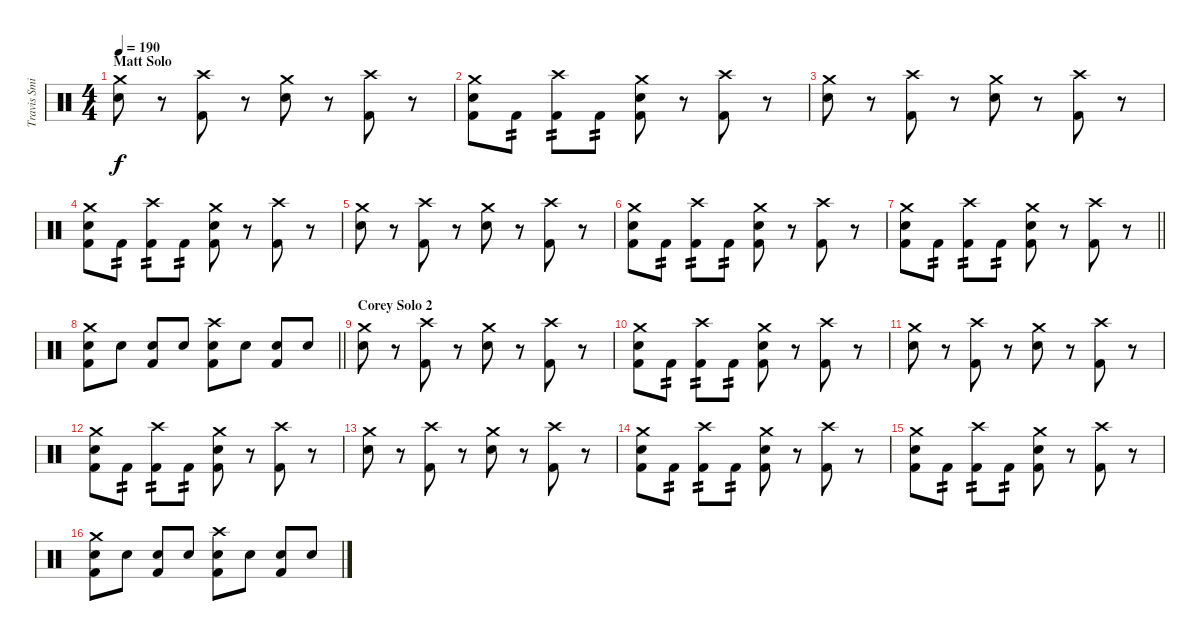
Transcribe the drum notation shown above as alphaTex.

\track ("Travis Smith" "Travis Smi") {instrument percussion}
\staff {score}
\articulation defaults
\ts (4 4)
\section ("" "Matt Solo")
\tempo 190
\clef neutral
\ks c
("Crash medium (hit)" "Electric Snare (hit)").8{dy f} r.8 ("Crash high (hit)" "Kick (hit) 2").8 r.8 ("Crash medium (hit)" "Electric Snare (hit)").8 r.8 ("Crash high (hit)" "Kick (hit) 2").8 r.8 |
("Crash medium (hit)" "Electric Snare (hit)" "Kick (hit) 2").8 "Kick (hit) 2".8{tp 2} ("Crash high (hit)" "Kick (hit) 2").8{tp 2} "Kick (hit) 2".8{tp 2} ("Crash medium (hit)" "Electric Snare (hit)" "Kick (hit) 2").8 r.8 ("Crash high (hit)" "Kick (hit) 2").8 r.8 |
("Crash medium (hit)" "Electric Snare (hit)").8 r.8 ("Crash high (hit)" "Kick (hit) 2").8 r.8 ("Crash medium (hit)" "Electric Snare (hit)").8 r.8 ("Crash high (hit)" "Kick (hit) 2").8 r.8 |
("Crash medium (hit)" "Electric Snare (hit)" "Kick (hit) 2").8 "Kick (hit) 2".8{tp 2} ("Crash high (hit)" "Kick (hit) 2").8{tp 2} "Kick (hit) 2".8{tp 2} ("Crash medium (hit)" "Electric Snare (hit)" "Kick (hit) 2").8 r.8 ("Crash high (hit)" "Kick (hit) 2").8 r.8 |
("Crash medium (hit)" "Electric Snare (hit)").8 r.8 ("Crash high (hit)" "Kick (hit) 2").8 r.8 ("Crash medium (hit)" "Electric Snare (hit)").8 r.8 ("Crash high (hit)" "Kick (hit) 2").8 r.8 |
("Crash medium (hit)" "Electric Snare (hit)" "Kick (hit) 2").8 "Kick (hit) 2".8{tp 2} ("Crash high (hit)" "Kick (hit) 2").8{tp 2} "Kick (hit) 2".8{tp 2} ("Crash medium (hit)" "Electric Snare (hit)" "Kick (hit) 2").8 r.8 ("Crash high (hit)" "Kick (hit) 2").8 r.8 |
\barLineRight lightlight
("Crash medium (hit)" "Electric Snare (hit)" "Kick (hit) 2").8 "Kick (hit) 2".8{tp 2} ("Crash high (hit)" "Kick (hit) 2").8{tp 2} "Kick (hit) 2".8{tp 2} ("Crash medium (hit)" "Electric Snare (hit)" "Kick (hit) 2").8 r.8 ("Crash high (hit)" "Kick (hit) 2").8 r.8 |
\barLineRight lightlight
("Crash medium (hit)" "Electric Snare (hit)" "Kick (hit) 2").8 "Electric Snare (hit)".8 ("Electric Snare (hit)" "Kick (hit) 2").8 "Electric Snare (hit)".8 ("Crash high (hit)" "Snare (hit) 2" "Kick (hit) 2").8 "Snare (hit) 2".8 ("Snare (hit) 2" "Kick (hit) 2").8 "Snare (hit) 2".8 |
\section ("" "Corey Solo 2")
("Crash medium (hit)" "Electric Snare (hit)").8 r.8 ("Crash high (hit)" "Kick (hit) 2").8 r.8 ("Crash medium (hit)" "Electric Snare (hit)").8 r.8 ("Crash high (hit)" "Kick (hit) 2").8 r.8 |
("Crash medium (hit)" "Electric Snare (hit)" "Kick (hit) 2").8 "Kick (hit) 2".8{tp 2} ("Crash high (hit)" "Kick (hit) 2").8{tp 2} "Kick (hit) 2".8{tp 2} ("Crash medium (hit)" "Electric Snare (hit)" "Kick (hit) 2").8 r.8 ("Crash high (hit)" "Kick (hit) 2").8 r.8 |
("Crash medium (hit)" "Electric Snare (hit)").8 r.8 ("Crash high (hit)" "Kick (hit) 2").8 r.8 ("Crash medium (hit)" "Electric Snare (hit)").8 r.8 ("Crash high (hit)" "Kick (hit) 2").8 r.8 |
("Crash medium (hit)" "Electric Snare (hit)" "Kick (hit) 2").8 "Kick (hit) 2".8{tp 2} ("Crash high (hit)" "Kick (hit) 2").8{tp 2} "Kick (hit) 2".8{tp 2} ("Crash medium (hit)" "Electric Snare (hit)" "Kick (hit) 2").8 r.8 ("Crash high (hit)" "Kick (hit) 2").8 r.8 |
("Crash medium (hit)" "Electric Snare (hit)").8 r.8 ("Crash high (hit)" "Kick (hit) 2").8 r.8 ("Crash medium (hit)" "Electric Snare (hit)").8 r.8 ("Crash high (hit)" "Kick (hit) 2").8 r.8 |
("Crash medium (hit)" "Electric Snare (hit)" "Kick (hit) 2").8 "Kick (hit) 2".8{tp 2} ("Crash high (hit)" "Kick (hit) 2").8{tp 2} "Kick (hit) 2".8{tp 2} ("Crash medium (hit)" "Electric Snare (hit)" "Kick (hit) 2").8 r.8 ("Crash high (hit)" "Kick (hit) 2").8 r.8 |
("Crash medium (hit)" "Electric Snare (hit)" "Kick (hit) 2").8 "Kick (hit) 2".8{tp 2} ("Crash high (hit)" "Kick (hit) 2").8{tp 2} "Kick (hit) 2".8{tp 2} ("Crash medium (hit)" "Electric Snare (hit)" "Kick (hit) 2").8 r.8 ("Crash high (hit)" "Kick (hit) 2").8 r.8 |
("Crash medium (hit)" "Electric Snare (hit)" "Kick (hit) 2").8 "Electric Snare (hit)".8 ("Electric Snare (hit)" "Kick (hit) 2").8 "Electric Snare (hit)".8 ("Crash high (hit)" "Snare (hit) 2" "Kick (hit) 2").8 "Snare (hit) 2".8 ("Snare (hit) 2" "Kick (hit) 2").8 "Snare (hit) 2".8
